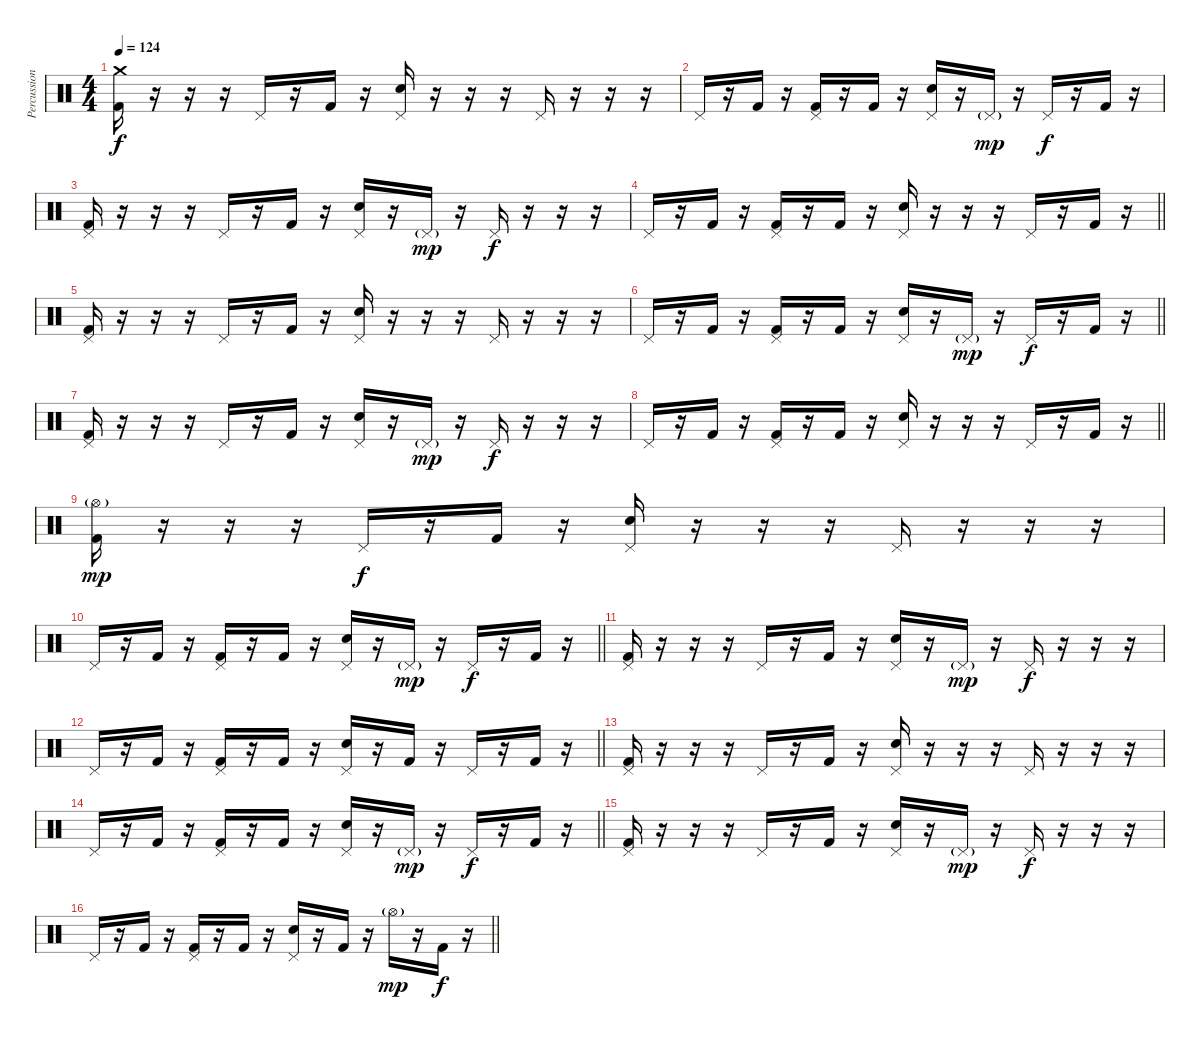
\track ("Percussion" "Percussion") {instrument percussion}
\staff {score}
\articulation defaults
\ts (4 4)
\section ("" "")
\tempo 124
\clef neutral
\ks c
("Kick (hit) 2" "Crash medium (hit)").16{dy f} r.16 r.16 r.16 "Pedal Hi-Hat (hit)".16 r.16 "Kick (hit) 2".16 r.16 ("Electric Snare (hit)" "Pedal Hi-Hat (hit)").16 r.16 r.16 r.16 "Pedal Hi-Hat (hit)".16 r.16 r.16 r.16 |
"Pedal Hi-Hat (hit)".16 r.16 "Kick (hit) 2".16 r.16 ("Kick (hit) 2" "Pedal Hi-Hat (hit)").16 r.16 "Kick (hit) 2".16 r.16 ("Electric Snare (hit)" "Pedal Hi-Hat (hit)").16 r.16 "Pedal Hi-Hat (hit)"{g}.16{dy mp} r.16 "Pedal Hi-Hat (hit)".16{dy f} r.16 "Kick (hit) 2".16 r.16 |
("Kick (hit) 2" "Pedal Hi-Hat (hit)").16 r.16 r.16 r.16 "Pedal Hi-Hat (hit)".16 r.16 "Kick (hit) 2".16 r.16 ("Electric Snare (hit)" "Pedal Hi-Hat (hit)").16 r.16 "Pedal Hi-Hat (hit)"{g}.16{dy mp} r.16 "Pedal Hi-Hat (hit)".16{dy f} r.16 r.16 r.16 |
\barLineRight lightlight "Pedal Hi-Hat (hit)".16
r.16 "Kick (hit) 2".16 r.16 ("Kick (hit) 2" "Pedal Hi-Hat (hit)").16 r.16 "Kick (hit) 2".16 r.16 ("Electric Snare (hit)" "Pedal Hi-Hat (hit)").16 r.16 r.16 r.16 "Pedal Hi-Hat (hit)".16 r.16 "Kick (hit) 2".16 r.16 |
("Kick (hit) 2" "Pedal Hi-Hat (hit)").16 r.16 r.16 r.16 "Pedal Hi-Hat (hit)".16 r.16 "Kick (hit) 2".16 r.16 ("Electric Snare (hit)" "Pedal Hi-Hat (hit)").16 r.16 r.16 r.16 "Pedal Hi-Hat (hit)".16 r.16 r.16 r.16 |
\barLineRight lightlight "Pedal Hi-Hat (hit)".16
r.16 "Kick (hit) 2".16 r.16 ("Kick (hit) 2" "Pedal Hi-Hat (hit)").16 r.16 "Kick (hit) 2".16 r.16 ("Electric Snare (hit)" "Pedal Hi-Hat (hit)").16 r.16 "Pedal Hi-Hat (hit)"{g}.16{dy mp} r.16 "Pedal Hi-Hat (hit)".16{dy f} r.16 "Kick (hit) 2".16 r.16 |
("Kick (hit) 2" "Pedal Hi-Hat (hit)").16 r.16 r.16 r.16 "Pedal Hi-Hat (hit)".16 r.16 "Kick (hit) 2".16 r.16 ("Electric Snare (hit)" "Pedal Hi-Hat (hit)").16 r.16 "Pedal Hi-Hat (hit)"{g}.16{dy mp} r.16 "Pedal Hi-Hat (hit)".16{dy f} r.16 r.16 r.16 |
\barLineRight lightlight "Pedal Hi-Hat (hit)".16
r.16 "Kick (hit) 2".16 r.16 ("Kick (hit) 2" "Pedal Hi-Hat (hit)").16 r.16 "Kick (hit) 2".16 r.16 ("Electric Snare (hit)" "Pedal Hi-Hat (hit)").16 r.16 r.16 r.16 "Pedal Hi-Hat (hit)".16 r.16 "Kick (hit) 2".16 r.16 |
("Kick (hit) 2" "Hi-Hat (open)"{g}).16{dy mp} r.16 r.16 r.16 "Pedal Hi-Hat (hit)".16{dy f} r.16 "Kick (hit) 2".16 r.16 ("Electric Snare (hit)" "Pedal Hi-Hat (hit)").16 r.16 r.16 r.16 "Pedal Hi-Hat (hit)".16 r.16 r.16 r.16 |
\barLineRight lightlight "Pedal Hi-Hat (hit)".16
r.16 "Kick (hit) 2".16 r.16 ("Kick (hit) 2" "Pedal Hi-Hat (hit)").16 r.16 "Kick (hit) 2".16 r.16 ("Electric Snare (hit)" "Pedal Hi-Hat (hit)").16 r.16 "Pedal Hi-Hat (hit)"{g}.16{dy mp} r.16 "Pedal Hi-Hat (hit)".16{dy f} r.16 "Kick (hit) 2".16 r.16 |
("Kick (hit) 2" "Pedal Hi-Hat (hit)").16 r.16 r.16 r.16 "Pedal Hi-Hat (hit)".16 r.16 "Kick (hit) 2".16 r.16 ("Electric Snare (hit)" "Pedal Hi-Hat (hit)").16 r.16 "Pedal Hi-Hat (hit)"{g}.16{dy mp} r.16 "Pedal Hi-Hat (hit)".16{dy f} r.16 r.16 r.16 |
\barLineRight lightlight "Pedal Hi-Hat (hit)".16
r.16 "Kick (hit) 2".16 r.16 ("Kick (hit) 2" "Pedal Hi-Hat (hit)").16 r.16 "Kick (hit) 2".16 r.16 ("Electric Snare (hit)" "Pedal Hi-Hat (hit)").16 r.16 "Kick (hit) 2".16 r.16 "Pedal Hi-Hat (hit)".16 r.16 "Kick (hit) 2".16 r.16 |
("Kick (hit) 2" "Pedal Hi-Hat (hit)").16 r.16 r.16 r.16 "Pedal Hi-Hat (hit)".16 r.16 "Kick (hit) 2".16 r.16 ("Electric Snare (hit)" "Pedal Hi-Hat (hit)").16 r.16 r.16 r.16 "Pedal Hi-Hat (hit)".16 r.16 r.16 r.16 |
\barLineRight lightlight "Pedal Hi-Hat (hit)".16
r.16 "Kick (hit) 2".16 r.16 ("Kick (hit) 2" "Pedal Hi-Hat (hit)").16 r.16 "Kick (hit) 2".16 r.16 ("Electric Snare (hit)" "Pedal Hi-Hat (hit)").16 r.16 "Pedal Hi-Hat (hit)"{g}.16{dy mp} r.16 "Pedal Hi-Hat (hit)".16{dy f} r.16 "Kick (hit) 2".16 r.16 |
("Kick (hit) 2" "Pedal Hi-Hat (hit)").16 r.16 r.16 r.16 "Pedal Hi-Hat (hit)".16 r.16 "Kick (hit) 2".16 r.16 ("Electric Snare (hit)" "Pedal Hi-Hat (hit)").16 r.16 "Pedal Hi-Hat (hit)"{g}.16{dy mp} r.16 "Pedal Hi-Hat (hit)".16{dy f} r.16 r.16 r.16 |
\barLineRight lightlight "Pedal Hi-Hat (hit)".16
r.16 "Kick (hit) 2".16 r.16 ("Kick (hit) 2" "Pedal Hi-Hat (hit)").16 r.16 "Kick (hit) 2".16 r.16 ("Electric Snare (hit)" "Pedal Hi-Hat (hit)").16 r.16 "Kick (hit) 2".16 r.16 "Hi-Hat (open)"{g}.16{dy mp} r.16 "Kick (hit) 2".16{dy f} r.16
